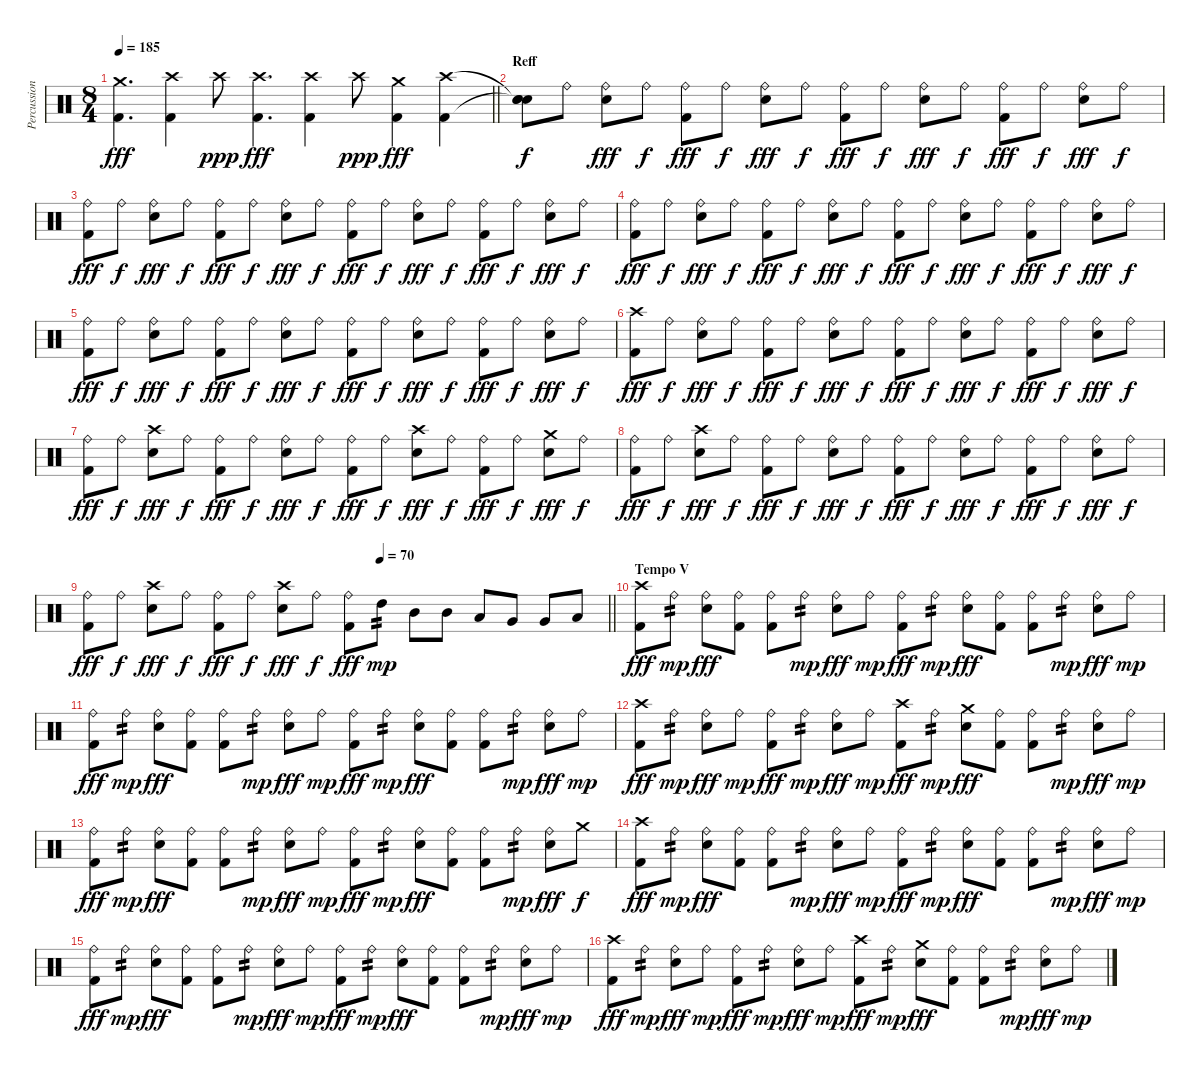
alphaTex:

\track ("Percussion" "Percussion") {instrument percussion}
\staff {score}
\articulation defaults
\ts (8 4)
\tempo 185
\clef neutral
\barLineRight lightlight
\ks c
("Crash medium (hit)" "Kick (hit) 2").4{d dy fff} ("Crash high (hit)" "Kick (hit) 2").4 "Crash high (hit)".8{dy ppp} ("Crash high (hit)" "Kick (hit) 2").4{d dy fff} ("Crash high (hit)" "Kick (hit) 2").4 "Crash high (hit)".8{dy ppp} ("Crash medium (hit)" "Kick (hit) 2").4{dy fff} ("Crash high (hit)" "Kick (hit) 2").4 |
\section ("" "Reff")
("Snare (hit)"{t} "Snare (hit)"{t} "Snare (hit)").8{dy f} "Ride (bell)".8 ("Ride (bell)" "Electric Snare (hit)").8{dy fff} "Ride (bell)".8{dy f} ("Ride (bell)" "Kick (hit) 2").8{dy fff} "Ride (bell)".8{dy f} ("Ride (bell)" "Electric Snare (hit)").8{dy fff} "Ride (bell)".8{dy f} ("Ride (bell)" "Kick (hit) 2").8{dy fff} "Ride (bell)".8{dy f} ("Ride (bell)" "Electric Snare (hit)").8{dy fff} "Ride (bell)".8{dy f} ("Ride (bell)" "Kick (hit) 2").8{dy fff} "Ride (bell)".8{dy f} ("Ride (bell)" "Electric Snare (hit)").8{dy fff} "Ride (bell)".8{dy f} |
("Ride (bell)" "Kick (hit) 2").8{dy fff} "Ride (bell)".8{dy f} ("Ride (bell)" "Electric Snare (hit)").8{dy fff} "Ride (bell)".8{dy f} ("Ride (bell)" "Kick (hit) 2").8{dy fff} "Ride (bell)".8{dy f} ("Ride (bell)" "Electric Snare (hit)").8{dy fff} "Ride (bell)".8{dy f} ("Ride (bell)" "Kick (hit) 2").8{dy fff} "Ride (bell)".8{dy f} ("Ride (bell)" "Electric Snare (hit)").8{dy fff} "Ride (bell)".8{dy f} ("Ride (bell)" "Kick (hit) 2").8{dy fff} "Ride (bell)".8{dy f} ("Ride (bell)" "Electric Snare (hit)").8{dy fff} "Ride (bell)".8{dy f} |
("Ride (bell)" "Kick (hit) 2").8{dy fff} "Ride (bell)".8{dy f} ("Ride (bell)" "Electric Snare (hit)").8{dy fff} "Ride (bell)".8{dy f} ("Ride (bell)" "Kick (hit) 2").8{dy fff} "Ride (bell)".8{dy f} ("Ride (bell)" "Electric Snare (hit)").8{dy fff} "Ride (bell)".8{dy f} ("Ride (bell)" "Kick (hit) 2").8{dy fff} "Ride (bell)".8{dy f} ("Ride (bell)" "Electric Snare (hit)").8{dy fff} "Ride (bell)".8{dy f} ("Ride (bell)" "Kick (hit) 2").8{dy fff} "Ride (bell)".8{dy f} ("Ride (bell)" "Electric Snare (hit)").8{dy fff} "Ride (bell)".8{dy f} |
("Ride (bell)" "Kick (hit) 2").8{dy fff} "Ride (bell)".8{dy f} ("Ride (bell)" "Electric Snare (hit)").8{dy fff} "Ride (bell)".8{dy f} ("Ride (bell)" "Kick (hit) 2").8{dy fff} "Ride (bell)".8{dy f} ("Ride (bell)" "Electric Snare (hit)").8{dy fff} "Ride (bell)".8{dy f} ("Ride (bell)" "Kick (hit) 2").8{dy fff} "Ride (bell)".8{dy f} ("Ride (bell)" "Electric Snare (hit)").8{dy fff} "Ride (bell)".8{dy f} ("Ride (bell)" "Kick (hit) 2").8{dy fff} "Ride (bell)".8{dy f} ("Ride (bell)" "Electric Snare (hit)").8{dy fff} "Ride (bell)".8{dy f} |
("Crash high (hit)" "Kick (hit) 2").8{dy fff} "Ride (bell)".8{dy f} ("Ride (bell)" "Electric Snare (hit)").8{dy fff} "Ride (bell)".8{dy f} ("Ride (bell)" "Kick (hit) 2").8{dy fff} "Ride (bell)".8{dy f} ("Ride (bell)" "Electric Snare (hit)").8{dy fff} "Ride (bell)".8{dy f} ("Ride (bell)" "Kick (hit) 2").8{dy fff} "Ride (bell)".8{dy f} ("Ride (bell)" "Electric Snare (hit)").8{dy fff} "Ride (bell)".8{dy f} ("Ride (bell)" "Kick (hit) 2").8{dy fff} "Ride (bell)".8{dy f} ("Ride (bell)" "Electric Snare (hit)").8{dy fff} "Ride (bell)".8{dy f} |
("Ride (bell)" "Kick (hit) 2").8{dy fff} "Ride (bell)".8{dy f} ("Crash high (hit)" "Electric Snare (hit)").8{dy fff} "Ride (bell)".8{dy f} ("Ride (bell)" "Kick (hit) 2").8{dy fff} "Ride (bell)".8{dy f} ("Ride (bell)" "Electric Snare (hit)").8{dy fff} "Ride (bell)".8{dy f} ("Ride (bell)" "Kick (hit) 2").8{dy fff} "Ride (bell)".8{dy f} ("Crash high (hit)" "Electric Snare (hit)").8{dy fff} "Ride (bell)".8{dy f} ("Ride (bell)" "Kick (hit) 2").8{dy fff} "Ride (bell)".8{dy f} ("Crash medium (hit)" "Electric Snare (hit)").8{dy fff} "Ride (bell)".8{dy f} |
("Ride (bell)" "Kick (hit) 2").8{dy fff} "Ride (bell)".8{dy f} ("Crash high (hit)" "Electric Snare (hit)").8{dy fff} "Ride (bell)".8{dy f} ("Ride (bell)" "Kick (hit) 2").8{dy fff} "Ride (bell)".8{dy f} ("Ride (bell)" "Electric Snare (hit)").8{dy fff} "Ride (bell)".8{dy f} ("Ride (bell)" "Kick (hit) 2").8{dy fff} "Ride (bell)".8{dy f} ("Ride (bell)" "Electric Snare (hit)").8{dy fff} "Ride (bell)".8{dy f} ("Ride (bell)" "Kick (hit) 2").8{dy fff} "Ride (bell)".8{dy f} ("Ride (bell)" "Electric Snare (hit)").8{dy fff} "Ride (bell)".8{dy f} |
\tempo (70 0.5625)
\barLineRight lightlight
("Ride (bell)" "Kick (hit) 2").8{dy fff} "Ride (bell)".8{dy f} ("Crash high (hit)" "Electric Snare (hit)").8{dy fff} "Ride (bell)".8{dy f} ("Ride (bell)" "Kick (hit) 2").8{dy fff} "Ride (bell)".8{dy f} ("Crash high (hit)" "Electric Snare (hit)").8{dy fff} "Ride (bell)".8{dy f} ("Ride (bell)" "Kick (hit) 2").8{dy fff} "High Tom (hit)".8{tp 2 dy mp} "Mid Tom (hit)".8 "Mid Tom (hit)".8 "Low Tom (hit)".8 "Very Low Tom (hit)".8 "Very Low Tom (hit)".8 "Low Floor Tom (hit)".8 |
\section ("" "Tempo V")
("Crash high (hit)" "Kick (hit) 2").8{dy fff} "Ride (bell)".8{tp 2 dy mp} ("Ride (bell)" "Electric Snare (hit)").8{dy fff} ("Ride (bell)" "Kick (hit) 2").8 ("Ride (bell)" "Kick (hit) 2").8 "Ride (bell)".8{tp 2 dy mp} ("Ride (bell)" "Electric Snare (hit)").8{dy fff} "Ride (bell)".8{dy mp} ("Ride (bell)" "Kick (hit) 2").8{dy fff} "Ride (bell)".8{tp 2 dy mp} ("Ride (bell)" "Electric Snare (hit)").8{dy fff} ("Ride (bell)" "Kick (hit) 2").8 ("Ride (bell)" "Kick (hit) 2").8 "Ride (bell)".8{tp 2 dy mp} ("Ride (bell)" "Electric Snare (hit)").8{dy fff} "Ride (bell)".8{dy mp} |
("Ride (bell)" "Kick (hit) 2").8{dy fff} "Ride (bell)".8{tp 2 dy mp} ("Ride (bell)" "Electric Snare (hit)").8{dy fff} ("Ride (bell)" "Kick (hit) 2").8 ("Ride (bell)" "Kick (hit) 2").8 "Ride (bell)".8{tp 2 dy mp} ("Ride (bell)" "Electric Snare (hit)").8{dy fff} "Ride (bell)".8{dy mp} ("Ride (bell)" "Kick (hit) 2").8{dy fff} "Ride (bell)".8{tp 2 dy mp} ("Ride (bell)" "Electric Snare (hit)").8{dy fff} ("Ride (bell)" "Kick (hit) 2").8 ("Ride (bell)" "Kick (hit) 2").8 "Ride (bell)".8{tp 2 dy mp} ("Ride (bell)" "Electric Snare (hit)").8{dy fff} "Ride (bell)".8{dy mp} |
("Crash high (hit)" "Kick (hit) 2").8{dy fff} "Ride (bell)".8{tp 2 dy mp} ("Ride (bell)" "Electric Snare (hit)").8{dy fff} "Ride (bell)".8{dy mp} ("Ride (bell)" "Kick (hit) 2").8{dy fff} "Ride (bell)".8{tp 2 dy mp} ("Ride (bell)" "Electric Snare (hit)").8{dy fff} "Ride (bell)".8{dy mp} ("Crash high (hit)" "Kick (hit) 2").8{dy fff} "Ride (bell)".8{tp 2 dy mp} ("Crash medium (hit)" "Electric Snare (hit)").8{dy fff} ("Ride (bell)" "Kick (hit) 2").8 ("Ride (bell)" "Kick (hit) 2").8 "Ride (bell)".8{tp 2 dy mp} ("Ride (bell)" "Electric Snare (hit)").8{dy fff} "Ride (bell)".8{dy mp} |
("Ride (bell)" "Kick (hit) 2").8{dy fff} "Ride (bell)".8{tp 2 dy mp} ("Ride (bell)" "Electric Snare (hit)").8{dy fff} ("Ride (bell)" "Kick (hit) 2").8 ("Ride (bell)" "Kick (hit) 2").8 "Ride (bell)".8{tp 2 dy mp} ("Ride (bell)" "Electric Snare (hit)").8{dy fff} "Ride (bell)".8{dy mp} ("Ride (bell)" "Kick (hit) 2").8{dy fff} "Ride (bell)".8{tp 2 dy mp} ("Ride (bell)" "Electric Snare (hit)").8{dy fff} ("Ride (bell)" "Kick (hit) 2").8 ("Ride (bell)" "Kick (hit) 2").8 "Ride (bell)".8{tp 2 dy mp} ("Ride (bell)" "Electric Snare (hit)").8{dy fff} "Crash medium (hit)".8{dy f} |
("Crash high (hit)" "Kick (hit) 2").8{dy fff} "Ride (bell)".8{tp 2 dy mp} ("Ride (bell)" "Electric Snare (hit)").8{dy fff} ("Ride (bell)" "Kick (hit) 2").8 ("Ride (bell)" "Kick (hit) 2").8 "Ride (bell)".8{tp 2 dy mp} ("Ride (bell)" "Electric Snare (hit)").8{dy fff} "Ride (bell)".8{dy mp} ("Ride (bell)" "Kick (hit) 2").8{dy fff} "Ride (bell)".8{tp 2 dy mp} ("Ride (bell)" "Electric Snare (hit)").8{dy fff} ("Ride (bell)" "Kick (hit) 2").8 ("Ride (bell)" "Kick (hit) 2").8 "Ride (bell)".8{tp 2 dy mp} ("Ride (bell)" "Electric Snare (hit)").8{dy fff} "Ride (bell)".8{dy mp} |
("Ride (bell)" "Kick (hit) 2").8{dy fff} "Ride (bell)".8{tp 2 dy mp} ("Ride (bell)" "Electric Snare (hit)").8{dy fff} ("Ride (bell)" "Kick (hit) 2").8 ("Ride (bell)" "Kick (hit) 2").8 "Ride (bell)".8{tp 2 dy mp} ("Ride (bell)" "Electric Snare (hit)").8{dy fff} "Ride (bell)".8{dy mp} ("Ride (bell)" "Kick (hit) 2").8{dy fff} "Ride (bell)".8{tp 2 dy mp} ("Ride (bell)" "Electric Snare (hit)").8{dy fff} ("Ride (bell)" "Kick (hit) 2").8 ("Ride (bell)" "Kick (hit) 2").8 "Ride (bell)".8{tp 2 dy mp} ("Ride (bell)" "Electric Snare (hit)").8{dy fff} "Ride (bell)".8{dy mp} |
("Crash high (hit)" "Kick (hit) 2").8{dy fff} "Ride (bell)".8{tp 2 dy mp} ("Ride (bell)" "Electric Snare (hit)").8{dy fff} "Ride (bell)".8{dy mp} ("Ride (bell)" "Kick (hit) 2").8{dy fff} "Ride (bell)".8{tp 2 dy mp} ("Ride (bell)" "Electric Snare (hit)").8{dy fff} "Ride (bell)".8{dy mp} ("Crash high (hit)" "Kick (hit) 2").8{dy fff} "Ride (bell)".8{tp 2 dy mp} ("Crash medium (hit)" "Electric Snare (hit)").8{dy fff} ("Ride (bell)" "Kick (hit) 2").8 ("Ride (bell)" "Kick (hit) 2").8 "Ride (bell)".8{tp 2 dy mp} ("Ride (bell)" "Electric Snare (hit)").8{dy fff} "Ride (bell)".8{dy mp}
